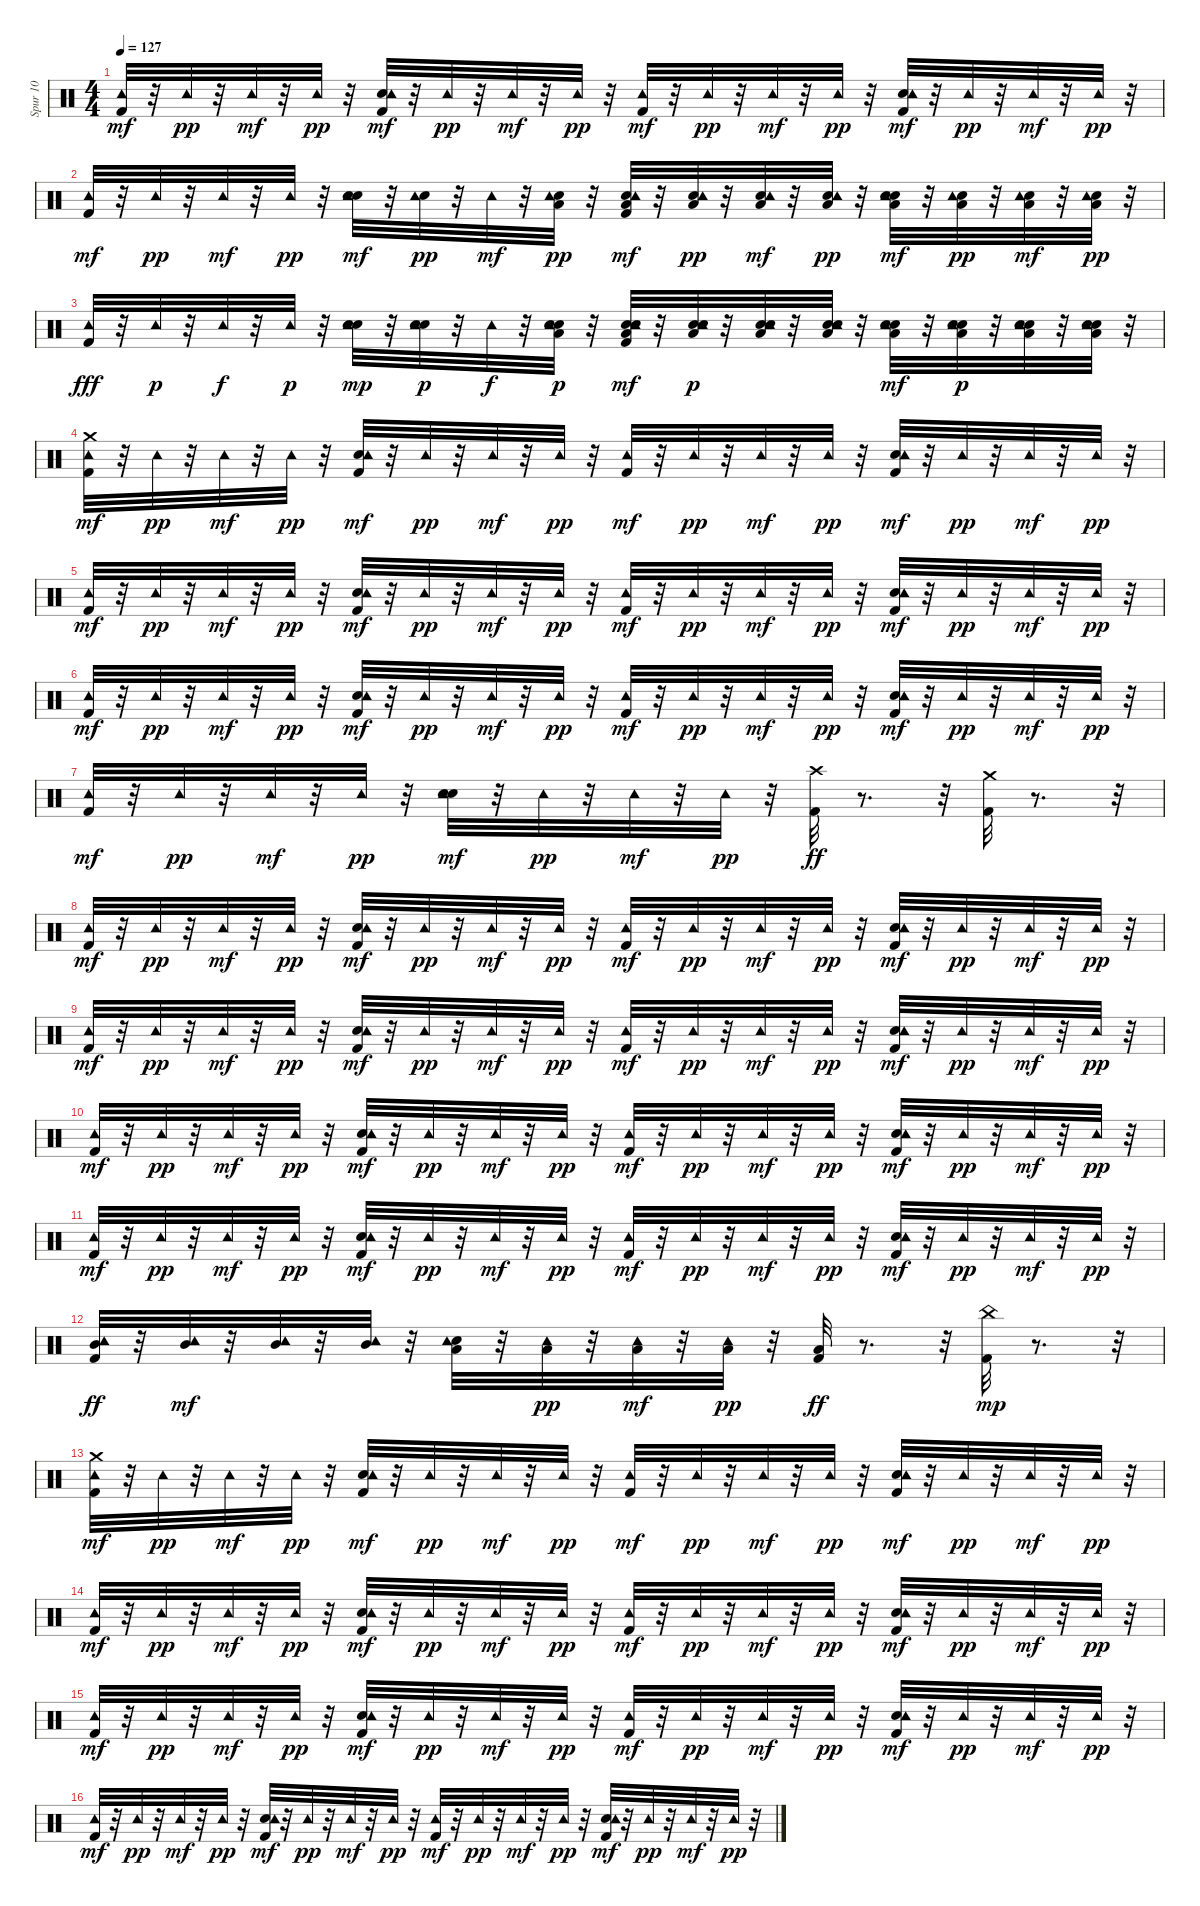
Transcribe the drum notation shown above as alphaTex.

\track ("Spur 10" "Spur 10") {instrument percussion}
\staff {score}
\articulation defaults
\ts (4 4)
\tempo 127
\clef neutral
\ks c
("Kick (hit) 2" "Tambourine (hit)").32{dy mf} r.32 "Tambourine (hit)".32{dy pp} r.32 "Tambourine (hit)".32{dy mf} r.32 "Tambourine (hit)".32{dy pp} r.32 ("Kick (hit) 2" "Snare (hit) 2" "Tambourine (hit)").32{dy mf} r.32 "Tambourine (hit)".32{dy pp} r.32 "Tambourine (hit)".32{dy mf} r.32 "Tambourine (hit)".32{dy pp} r.32 ("Kick (hit) 2" "Tambourine (hit)").32{dy mf} r.32 "Tambourine (hit)".32{dy pp} r.32 "Tambourine (hit)".32{dy mf} r.32 "Tambourine (hit)".32{dy pp} r.32 ("Kick (hit) 2" "Snare (hit) 2" "Tambourine (hit)").32{dy mf} r.32 "Tambourine (hit)".32{dy pp} r.32 "Tambourine (hit)".32{dy mf} r.32 "Tambourine (hit)".32{dy pp} r.32 |
("Kick (hit) 2" "Tambourine (hit)").32{dy mf} r.32 "Tambourine (hit)".32{dy pp} r.32 "Tambourine (hit)".32{dy mf} r.32 "Tambourine (hit)".32{dy pp} r.32 ("Snare (hit) 2" "Electric Snare (hit)" "Tambourine (hit)").32{dy mf} r.32 ("Electric Snare (hit)" "Tambourine (hit)").32{dy pp} r.32 "Tambourine (hit)".32{dy mf} r.32 ("Electric Snare (hit)" "Low Tom (hit)" "Tambourine (hit)").32{dy pp} r.32 ("Kick (hit) 2" "Electric Snare (hit)" "Low Tom (hit)" "Tambourine (hit)").32{dy mf} r.32 ("Electric Snare (hit)" "Low Tom (hit)" "Tambourine (hit)").32{dy pp} r.32 ("Electric Snare (hit)" "Low Tom (hit)" "Tambourine (hit)").32{dy mf} r.32 ("Electric Snare (hit)" "Low Tom (hit)" "Tambourine (hit)").32{dy pp} r.32 ("Snare (hit) 2" "Electric Snare (hit)" "Low Tom (hit)" "Tambourine (hit)").32{dy mf} r.32 ("Electric Snare (hit)" "Low Tom (hit)" "Tambourine (hit)").32{dy pp} r.32 ("Electric Snare (hit)" "Low Tom (hit)" "Tambourine (hit)").32{dy mf} r.32 ("Electric Snare (hit)" "Low Tom (hit)" "Tambourine (hit)").32{dy pp} r.32 |
("Kick (hit) 2" "Tambourine (hit)").32{dy fff} r.32 "Tambourine (hit)".32{dy p} r.32 "Tambourine (hit)".32{dy f} r.32 "Tambourine (hit)".32{dy p} r.32 ("Snare (hit) 2" "Electric Snare (hit)" "Tambourine (hit)").32{dy mp} r.32 ("Snare (hit) 2" "Electric Snare (hit)" "Tambourine (hit)").32{dy p} r.32 "Tambourine (hit)".32{dy f} r.32 ("Snare (hit) 2" "Electric Snare (hit)" "Low Tom (hit)" "Tambourine (hit)").32{dy p} r.32 ("Kick (hit) 2" "Snare (hit) 2" "Electric Snare (hit)" "Low Tom (hit)" "Tambourine (hit)").32{dy mf} r.32 ("Snare (hit) 2" "Electric Snare (hit)" "Low Tom (hit)" "Tambourine (hit)").32{dy p} r.32 ("Snare (hit) 2" "Electric Snare (hit)" "Low Tom (hit)" "Tambourine (hit)").32 r.32 ("Snare (hit) 2" "Electric Snare (hit)" "Low Tom (hit)" "Tambourine (hit)").32 r.32 ("Snare (hit) 2" "Electric Snare (hit)" "Low Tom (hit)" "Tambourine (hit)").32{dy mf} r.32 ("Snare (hit) 2" "Electric Snare (hit)" "Low Tom (hit)" "Tambourine (hit)").32{dy p} r.32 ("Snare (hit) 2" "Electric Snare (hit)" "Low Tom (hit)" "Tambourine (hit)").32 r.32 ("Snare (hit) 2" "Electric Snare (hit)" "Low Tom (hit)" "Tambourine (hit)").32 r.32 |
("Kick (hit) 2" "Tambourine (hit)" "Crash medium (hit)").32{dy mf} r.32 "Tambourine (hit)".32{dy pp} r.32 "Tambourine (hit)".32{dy mf} r.32 "Tambourine (hit)".32{dy pp} r.32 ("Kick (hit) 2" "Snare (hit) 2" "Tambourine (hit)").32{dy mf} r.32 "Tambourine (hit)".32{dy pp} r.32 "Tambourine (hit)".32{dy mf} r.32 "Tambourine (hit)".32{dy pp} r.32 ("Kick (hit) 2" "Tambourine (hit)").32{dy mf} r.32 "Tambourine (hit)".32{dy pp} r.32 "Tambourine (hit)".32{dy mf} r.32 "Tambourine (hit)".32{dy pp} r.32 ("Kick (hit) 2" "Snare (hit) 2" "Tambourine (hit)").32{dy mf} r.32 "Tambourine (hit)".32{dy pp} r.32 "Tambourine (hit)".32{dy mf} r.32 "Tambourine (hit)".32{dy pp} r.32 |
("Kick (hit) 2" "Tambourine (hit)").32{dy mf} r.32 "Tambourine (hit)".32{dy pp} r.32 "Tambourine (hit)".32{dy mf} r.32 "Tambourine (hit)".32{dy pp} r.32 ("Kick (hit) 2" "Snare (hit) 2" "Tambourine (hit)").32{dy mf} r.32 "Tambourine (hit)".32{dy pp} r.32 "Tambourine (hit)".32{dy mf} r.32 "Tambourine (hit)".32{dy pp} r.32 ("Kick (hit) 2" "Tambourine (hit)").32{dy mf} r.32 "Tambourine (hit)".32{dy pp} r.32 "Tambourine (hit)".32{dy mf} r.32 "Tambourine (hit)".32{dy pp} r.32 ("Kick (hit) 2" "Snare (hit) 2" "Tambourine (hit)").32{dy mf} r.32 "Tambourine (hit)".32{dy pp} r.32 "Tambourine (hit)".32{dy mf} r.32 "Tambourine (hit)".32{dy pp} r.32 |
("Kick (hit) 2" "Tambourine (hit)").32{dy mf} r.32 "Tambourine (hit)".32{dy pp} r.32 "Tambourine (hit)".32{dy mf} r.32 "Tambourine (hit)".32{dy pp} r.32 ("Kick (hit) 2" "Snare (hit) 2" "Tambourine (hit)").32{dy mf} r.32 "Tambourine (hit)".32{dy pp} r.32 "Tambourine (hit)".32{dy mf} r.32 "Tambourine (hit)".32{dy pp} r.32 ("Kick (hit) 2" "Tambourine (hit)").32{dy mf} r.32 "Tambourine (hit)".32{dy pp} r.32 "Tambourine (hit)".32{dy mf} r.32 "Tambourine (hit)".32{dy pp} r.32 ("Kick (hit) 2" "Snare (hit) 2" "Tambourine (hit)").32{dy mf} r.32 "Tambourine (hit)".32{dy pp} r.32 "Tambourine (hit)".32{dy mf} r.32 "Tambourine (hit)".32{dy pp} r.32 |
("Kick (hit) 2" "Tambourine (hit)").32{dy mf} r.32 "Tambourine (hit)".32{dy pp} r.32 "Tambourine (hit)".32{dy mf} r.32 "Tambourine (hit)".32{dy pp} r.32 ("Snare (hit) 2" "Electric Snare (hit)" "Tambourine (hit)").32{dy mf} r.32 "Tambourine (hit)".32{dy pp} r.32 "Tambourine (hit)".32{dy mf} r.32 "Tambourine (hit)".32{dy pp} r.32 ("Kick (hit) 2" "Crash high (hit)").32{dy ff} r.8{d} r.32 ("Kick (hit) 2" "Crash medium (hit)").32 r.8{d} r.32 |
("Kick (hit) 2" "Tambourine (hit)").32{dy mf} r.32 "Tambourine (hit)".32{dy pp} r.32 "Tambourine (hit)".32{dy mf} r.32 "Tambourine (hit)".32{dy pp} r.32 ("Kick (hit) 2" "Snare (hit) 2" "Tambourine (hit)").32{dy mf} r.32 "Tambourine (hit)".32{dy pp} r.32 "Tambourine (hit)".32{dy mf} r.32 "Tambourine (hit)".32{dy pp} r.32 ("Kick (hit) 2" "Tambourine (hit)").32{dy mf} r.32 "Tambourine (hit)".32{dy pp} r.32 "Tambourine (hit)".32{dy mf} r.32 "Tambourine (hit)".32{dy pp} r.32 ("Kick (hit) 2" "Snare (hit) 2" "Tambourine (hit)").32{dy mf} r.32 "Tambourine (hit)".32{dy pp} r.32 "Tambourine (hit)".32{dy mf} r.32 "Tambourine (hit)".32{dy pp} r.32 |
("Kick (hit) 2" "Tambourine (hit)").32{dy mf} r.32 "Tambourine (hit)".32{dy pp} r.32 "Tambourine (hit)".32{dy mf} r.32 "Tambourine (hit)".32{dy pp} r.32 ("Kick (hit) 2" "Snare (hit) 2" "Tambourine (hit)").32{dy mf} r.32 "Tambourine (hit)".32{dy pp} r.32 "Tambourine (hit)".32{dy mf} r.32 "Tambourine (hit)".32{dy pp} r.32 ("Kick (hit) 2" "Tambourine (hit)").32{dy mf} r.32 "Tambourine (hit)".32{dy pp} r.32 "Tambourine (hit)".32{dy mf} r.32 "Tambourine (hit)".32{dy pp} r.32 ("Kick (hit) 2" "Snare (hit) 2" "Tambourine (hit)").32{dy mf} r.32 "Tambourine (hit)".32{dy pp} r.32 "Tambourine (hit)".32{dy mf} r.32 "Tambourine (hit)".32{dy pp} r.32 |
("Kick (hit) 2" "Tambourine (hit)").32{dy mf} r.32 "Tambourine (hit)".32{dy pp} r.32 "Tambourine (hit)".32{dy mf} r.32 "Tambourine (hit)".32{dy pp} r.32 ("Kick (hit) 2" "Snare (hit) 2" "Tambourine (hit)").32{dy mf} r.32 "Tambourine (hit)".32{dy pp} r.32 "Tambourine (hit)".32{dy mf} r.32 "Tambourine (hit)".32{dy pp} r.32 ("Kick (hit) 2" "Tambourine (hit)").32{dy mf} r.32 "Tambourine (hit)".32{dy pp} r.32 "Tambourine (hit)".32{dy mf} r.32 "Tambourine (hit)".32{dy pp} r.32 ("Kick (hit) 2" "Snare (hit) 2" "Tambourine (hit)").32{dy mf} r.32 "Tambourine (hit)".32{dy pp} r.32 "Tambourine (hit)".32{dy mf} r.32 "Tambourine (hit)".32{dy pp} r.32 |
("Kick (hit) 2" "Tambourine (hit)").32{dy mf} r.32 "Tambourine (hit)".32{dy pp} r.32 "Tambourine (hit)".32{dy mf} r.32 "Tambourine (hit)".32{dy pp} r.32 ("Kick (hit) 2" "Snare (hit) 2" "Tambourine (hit)").32{dy mf} r.32 "Tambourine (hit)".32{dy pp} r.32 "Tambourine (hit)".32{dy mf} r.32 "Tambourine (hit)".32{dy pp} r.32 ("Kick (hit) 2" "Tambourine (hit)").32{dy mf} r.32 "Tambourine (hit)".32{dy pp} r.32 "Tambourine (hit)".32{dy mf} r.32 "Tambourine (hit)".32{dy pp} r.32 ("Kick (hit) 2" "Snare (hit) 2" "Tambourine (hit)").32{dy mf} r.32 "Tambourine (hit)".32{dy pp} r.32 "Tambourine (hit)".32{dy mf} r.32 "Tambourine (hit)".32{dy pp} r.32 |
("Kick (hit) 2" "Tambourine (hit)" "Mid Tom (hit)").32{dy ff} r.32 ("Tambourine (hit)" "Mid Tom (hit)").32{dy mf} r.32 ("Tambourine (hit)" "Mid Tom (hit)").32 r.32 ("Tambourine (hit)" "Mid Tom (hit)").32 r.32 ("Snare (hit) 2" "Low Tom (hit)" "Tambourine (hit)").32 r.32 ("Low Tom (hit)" "Tambourine (hit)").32{dy pp} r.32 ("Low Tom (hit)" "Tambourine (hit)").32{dy mf} r.32 ("Low Tom (hit)" "Tambourine (hit)").32{dy pp} r.32 ("Kick (hit) 2" "Low Floor Tom (hit)").32{dy ff} r.8{d} r.32 ("Kick (hit) 2" "China (hit)").32{dy mp} r.8{d} r.32 |
("Kick (hit) 2" "Tambourine (hit)" "Crash medium (hit)").32{dy mf} r.32 "Tambourine (hit)".32{dy pp} r.32 "Tambourine (hit)".32{dy mf} r.32 "Tambourine (hit)".32{dy pp} r.32 ("Kick (hit) 2" "Snare (hit) 2" "Tambourine (hit)").32{dy mf} r.32 "Tambourine (hit)".32{dy pp} r.32 "Tambourine (hit)".32{dy mf} r.32 "Tambourine (hit)".32{dy pp} r.32 ("Kick (hit) 2" "Tambourine (hit)").32{dy mf} r.32 "Tambourine (hit)".32{dy pp} r.32 "Tambourine (hit)".32{dy mf} r.32 "Tambourine (hit)".32{dy pp} r.32 ("Kick (hit) 2" "Snare (hit) 2" "Tambourine (hit)").32{dy mf} r.32 "Tambourine (hit)".32{dy pp} r.32 "Tambourine (hit)".32{dy mf} r.32 "Tambourine (hit)".32{dy pp} r.32 |
("Kick (hit) 2" "Tambourine (hit)").32{dy mf} r.32 "Tambourine (hit)".32{dy pp} r.32 "Tambourine (hit)".32{dy mf} r.32 "Tambourine (hit)".32{dy pp} r.32 ("Kick (hit) 2" "Snare (hit) 2" "Tambourine (hit)").32{dy mf} r.32 "Tambourine (hit)".32{dy pp} r.32 "Tambourine (hit)".32{dy mf} r.32 "Tambourine (hit)".32{dy pp} r.32 ("Kick (hit) 2" "Tambourine (hit)").32{dy mf} r.32 "Tambourine (hit)".32{dy pp} r.32 "Tambourine (hit)".32{dy mf} r.32 "Tambourine (hit)".32{dy pp} r.32 ("Kick (hit) 2" "Snare (hit) 2" "Tambourine (hit)").32{dy mf} r.32 "Tambourine (hit)".32{dy pp} r.32 "Tambourine (hit)".32{dy mf} r.32 "Tambourine (hit)".32{dy pp} r.32 |
("Kick (hit) 2" "Tambourine (hit)").32{dy mf} r.32 "Tambourine (hit)".32{dy pp} r.32 "Tambourine (hit)".32{dy mf} r.32 "Tambourine (hit)".32{dy pp} r.32 ("Kick (hit) 2" "Snare (hit) 2" "Tambourine (hit)").32{dy mf} r.32 "Tambourine (hit)".32{dy pp} r.32 "Tambourine (hit)".32{dy mf} r.32 "Tambourine (hit)".32{dy pp} r.32 ("Kick (hit) 2" "Tambourine (hit)").32{dy mf} r.32 "Tambourine (hit)".32{dy pp} r.32 "Tambourine (hit)".32{dy mf} r.32 "Tambourine (hit)".32{dy pp} r.32 ("Kick (hit) 2" "Snare (hit) 2" "Tambourine (hit)").32{dy mf} r.32 "Tambourine (hit)".32{dy pp} r.32 "Tambourine (hit)".32{dy mf} r.32 "Tambourine (hit)".32{dy pp} r.32 |
("Kick (hit) 2" "Tambourine (hit)").32{dy mf} r.32 "Tambourine (hit)".32{dy pp} r.32 "Tambourine (hit)".32{dy mf} r.32 "Tambourine (hit)".32{dy pp} r.32 ("Kick (hit) 2" "Snare (hit) 2" "Tambourine (hit)").32{dy mf} r.32 "Tambourine (hit)".32{dy pp} r.32 "Tambourine (hit)".32{dy mf} r.32 "Tambourine (hit)".32{dy pp} r.32 ("Kick (hit) 2" "Tambourine (hit)").32{dy mf} r.32 "Tambourine (hit)".32{dy pp} r.32 "Tambourine (hit)".32{dy mf} r.32 "Tambourine (hit)".32{dy pp} r.32 ("Kick (hit) 2" "Snare (hit) 2" "Tambourine (hit)").32{dy mf} r.32 "Tambourine (hit)".32{dy pp} r.32 "Tambourine (hit)".32{dy mf} r.32 "Tambourine (hit)".32{dy pp} r.32
